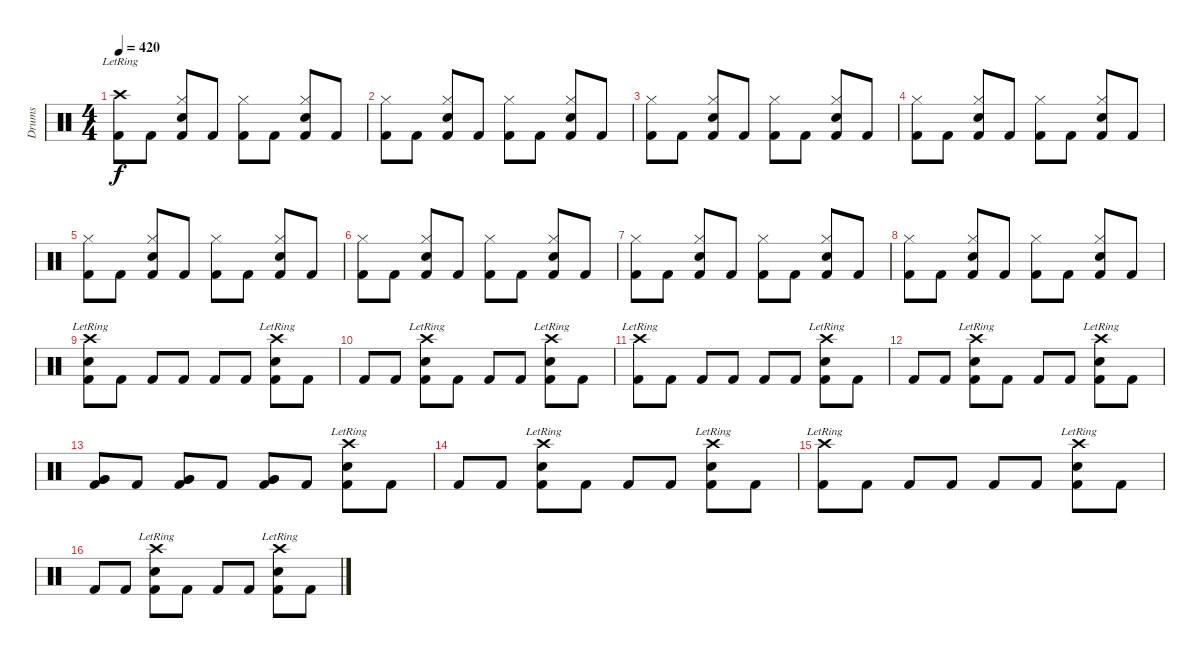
\track ("Drums" "Drums") {instrument percussion}
\staff {score}
\articulation defaults
\ts (4 4)
\tempo 420
\clef neutral
\ks c
("Crash high (hit)"{lr} "Kick (hit) 2").8{dy f} "Kick (hit) 2".8 ("Hi-Hat (closed)" "Snare (hit) 2" "Kick (hit) 2").8 "Kick (hit) 2".8 ("Hi-Hat (closed)" "Kick (hit) 2").8 "Kick (hit) 2".8 ("Hi-Hat (closed)" "Snare (hit) 2" "Kick (hit) 2").8 "Kick (hit) 2".8 |
("Hi-Hat (closed)" "Kick (hit) 2").8 "Kick (hit) 2".8 ("Hi-Hat (closed)" "Snare (hit) 2" "Kick (hit) 2").8 "Kick (hit) 2".8 ("Hi-Hat (closed)" "Kick (hit) 2").8 "Kick (hit) 2".8 ("Hi-Hat (closed)" "Snare (hit) 2" "Kick (hit) 2").8 "Kick (hit) 2".8 |
("Hi-Hat (closed)" "Kick (hit) 2").8 "Kick (hit) 2".8 ("Hi-Hat (closed)" "Snare (hit) 2" "Kick (hit) 2").8 "Kick (hit) 2".8 ("Hi-Hat (closed)" "Kick (hit) 2").8 "Kick (hit) 2".8 ("Hi-Hat (closed)" "Snare (hit) 2" "Kick (hit) 2").8 "Kick (hit) 2".8 |
("Hi-Hat (closed)" "Kick (hit) 2").8 "Kick (hit) 2".8 ("Hi-Hat (closed)" "Snare (hit) 2" "Kick (hit) 2").8 "Kick (hit) 2".8 ("Hi-Hat (closed)" "Kick (hit) 2").8 "Kick (hit) 2".8 ("Hi-Hat (closed)" "Snare (hit) 2" "Kick (hit) 2").8 "Kick (hit) 2".8 |
("Hi-Hat (closed)" "Kick (hit) 2").8 "Kick (hit) 2".8 ("Hi-Hat (closed)" "Snare (hit) 2" "Kick (hit) 2").8 "Kick (hit) 2".8 ("Hi-Hat (closed)" "Kick (hit) 2").8 "Kick (hit) 2".8 ("Hi-Hat (closed)" "Snare (hit) 2" "Kick (hit) 2").8 "Kick (hit) 2".8 |
("Hi-Hat (closed)" "Kick (hit) 2").8 "Kick (hit) 2".8 ("Hi-Hat (closed)" "Snare (hit) 2" "Kick (hit) 2").8 "Kick (hit) 2".8 ("Hi-Hat (closed)" "Kick (hit) 2").8 "Kick (hit) 2".8 ("Hi-Hat (closed)" "Snare (hit) 2" "Kick (hit) 2").8 "Kick (hit) 2".8 |
("Hi-Hat (closed)" "Kick (hit) 2").8 "Kick (hit) 2".8 ("Hi-Hat (closed)" "Snare (hit) 2" "Kick (hit) 2").8 "Kick (hit) 2".8 ("Hi-Hat (closed)" "Kick (hit) 2").8 "Kick (hit) 2".8 ("Hi-Hat (closed)" "Snare (hit) 2" "Kick (hit) 2").8 "Kick (hit) 2".8 |
("Hi-Hat (closed)" "Kick (hit) 2").8 "Kick (hit) 2".8 ("Hi-Hat (closed)" "Snare (hit) 2" "Kick (hit) 2").8 "Kick (hit) 2".8 ("Hi-Hat (closed)" "Kick (hit) 2").8 "Kick (hit) 2".8 ("Hi-Hat (closed)" "Snare (hit) 2" "Kick (hit) 2").8 "Kick (hit) 2".8 |
("Crash high (hit)"{lr} "Snare (hit) 2" "Kick (hit) 2").8 "Kick (hit) 2".8 "Kick (hit) 2".8 "Kick (hit) 2".8 "Kick (hit) 2".8 "Kick (hit) 2".8 ("Crash high (hit)"{lr} "Snare (hit) 2" "Kick (hit) 2").8 "Kick (hit) 2".8 |
"Kick (hit) 2".8 "Kick (hit) 2".8 ("Crash high (hit)"{lr} "Snare (hit) 2" "Kick (hit) 2").8 "Kick (hit) 2".8 "Kick (hit) 2".8 "Kick (hit) 2".8 ("Crash high (hit)"{lr} "Snare (hit) 2" "Kick (hit) 2").8 "Kick (hit) 2".8 |
("Crash high (hit)"{lr} "Kick (hit) 2").8 "Kick (hit) 2".8 "Kick (hit) 2".8 "Kick (hit) 2".8 "Kick (hit) 2".8 "Kick (hit) 2".8 ("Crash high (hit)"{lr} "Snare (hit) 2" "Kick (hit) 2").8 "Kick (hit) 2".8 |
"Kick (hit) 2".8 "Kick (hit) 2".8 ("Crash high (hit)"{lr} "Snare (hit) 2" "Kick (hit) 2").8 "Kick (hit) 2".8 "Kick (hit) 2".8 "Kick (hit) 2".8 ("Crash high (hit)"{lr} "Snare (hit) 2" "Kick (hit) 2").8 "Kick (hit) 2".8 |
("Very Low Tom (hit)" "Very Low Tom (hit)" "Kick (hit) 2").8 "Kick (hit) 2".8 ("Very Low Tom (hit)" "Very Low Tom (hit)" "Kick (hit) 2").8 "Kick (hit) 2".8 ("Very Low Tom (hit)" "Very Low Tom (hit)" "Kick (hit) 2").8 "Kick (hit) 2".8 ("Crash high (hit)"{lr} "Snare (hit) 2" "Kick (hit) 2").8 "Kick (hit) 2".8 |
"Kick (hit) 2".8 "Kick (hit) 2".8 ("Crash high (hit)"{lr} "Snare (hit) 2" "Kick (hit) 2").8 "Kick (hit) 2".8 "Kick (hit) 2".8 "Kick (hit) 2".8 ("Crash high (hit)"{lr} "Snare (hit) 2" "Kick (hit) 2").8 "Kick (hit) 2".8 |
("Crash high (hit)"{lr} "Kick (hit) 2").8 "Kick (hit) 2".8 "Kick (hit) 2".8 "Kick (hit) 2".8 "Kick (hit) 2".8 "Kick (hit) 2".8 ("Crash high (hit)"{lr} "Snare (hit) 2" "Kick (hit) 2").8 "Kick (hit) 2".8 |
"Kick (hit) 2".8 "Kick (hit) 2".8 ("Crash high (hit)"{lr} "Snare (hit) 2" "Kick (hit) 2").8 "Kick (hit) 2".8 "Kick (hit) 2".8 "Kick (hit) 2".8 ("Crash high (hit)"{lr} "Snare (hit) 2" "Kick (hit) 2").8 "Kick (hit) 2".8
